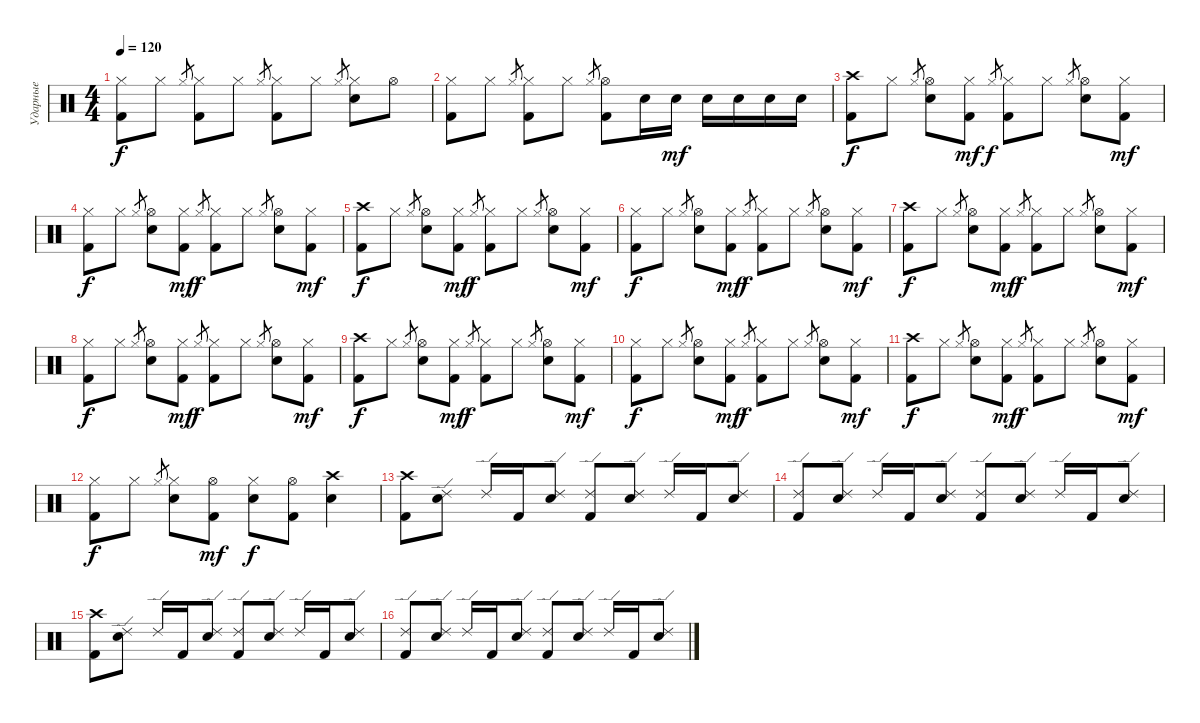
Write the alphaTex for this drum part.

\track ("Ударные" "Ударные") {instrument percussion}
\staff {score}
\articulation defaults
\ts (4 4)
\tempo 120
\clef neutral
\ks c
("Kick (hit) 2" "Hi-Hat (closed)").8{dy f} "Hi-Hat (closed)".8 "Hi-Hat (closed)".8{gr} ("Kick (hit) 2" "Hi-Hat (closed)").8 "Hi-Hat (closed)".8 "Hi-Hat (closed)".8{gr} ("Kick (hit) 2" "Hi-Hat (closed)").8 "Hi-Hat (closed)".8 "Hi-Hat (closed)".8{gr} ("Electric Snare (hit)" "Hi-Hat (closed)").8 "Hi-Hat (open)".8 |
("Kick (hit) 2" "Hi-Hat (closed)").8 "Hi-Hat (closed)".8 "Hi-Hat (closed)".8{gr} ("Kick (hit) 2" "Hi-Hat (closed)").8 "Hi-Hat (closed)".8 "Hi-Hat (closed)".8{gr} ("Kick (hit) 2" "Hi-Hat (open)").8 "Electric Snare (hit)".16 "Electric Snare (hit)".16{dy mf} "Electric Snare (hit)".16 "Electric Snare (hit)".16 "Electric Snare (hit)".16 "Electric Snare (hit)".16 |
("Kick (hit) 2" "Crash high (hit)").8{dy f} "Hi-Hat (closed)".8 "Hi-Hat (closed)".8{gr} ("Electric Snare (hit)" "Hi-Hat (open)").8 ("Kick (hit) 2" "Hi-Hat (closed)").8{dy mf} "Hi-Hat (closed)".8{gr dy f} ("Kick (hit) 2" "Hi-Hat (closed)").8 "Hi-Hat (closed)".8 "Hi-Hat (closed)".8{gr} ("Electric Snare (hit)" "Hi-Hat (open)").8 ("Kick (hit) 2" "Hi-Hat (closed)").8{dy mf} |
("Kick (hit) 2" "Hi-Hat (closed)").8{dy f} "Hi-Hat (closed)".8 "Hi-Hat (closed)".8{gr} ("Electric Snare (hit)" "Hi-Hat (open)").8 ("Kick (hit) 2" "Hi-Hat (closed)").8{dy mf} "Hi-Hat (closed)".8{gr dy f} ("Kick (hit) 2" "Hi-Hat (closed)").8 "Hi-Hat (closed)".8 "Hi-Hat (closed)".8{gr} ("Electric Snare (hit)" "Hi-Hat (open)").8 ("Kick (hit) 2" "Hi-Hat (closed)").8{dy mf} |
("Kick (hit) 2" "Crash high (hit)").8{dy f} "Hi-Hat (closed)".8 "Hi-Hat (closed)".8{gr} ("Electric Snare (hit)" "Hi-Hat (open)").8 ("Kick (hit) 2" "Hi-Hat (closed)").8{dy mf} "Hi-Hat (closed)".8{gr dy f} ("Kick (hit) 2" "Hi-Hat (closed)").8 "Hi-Hat (closed)".8 "Hi-Hat (closed)".8{gr} ("Electric Snare (hit)" "Hi-Hat (open)").8 ("Kick (hit) 2" "Hi-Hat (closed)").8{dy mf} |
("Kick (hit) 2" "Hi-Hat (closed)").8{dy f} "Hi-Hat (closed)".8 "Hi-Hat (closed)".8{gr} ("Electric Snare (hit)" "Hi-Hat (open)").8 ("Kick (hit) 2" "Hi-Hat (closed)").8{dy mf} "Hi-Hat (closed)".8{gr dy f} ("Kick (hit) 2" "Hi-Hat (closed)").8 "Hi-Hat (closed)".8 "Hi-Hat (closed)".8{gr} ("Electric Snare (hit)" "Hi-Hat (open)").8 ("Kick (hit) 2" "Hi-Hat (closed)").8{dy mf} |
("Kick (hit) 2" "Crash high (hit)").8{dy f} "Hi-Hat (closed)".8 "Hi-Hat (closed)".8{gr} ("Electric Snare (hit)" "Hi-Hat (open)").8 ("Kick (hit) 2" "Hi-Hat (closed)").8{dy mf} "Hi-Hat (closed)".8{gr dy f} ("Kick (hit) 2" "Hi-Hat (closed)").8 "Hi-Hat (closed)".8 "Hi-Hat (closed)".8{gr} ("Electric Snare (hit)" "Hi-Hat (open)").8 ("Kick (hit) 2" "Hi-Hat (closed)").8{dy mf} |
("Kick (hit) 2" "Hi-Hat (closed)").8{dy f} "Hi-Hat (closed)".8 "Hi-Hat (closed)".8{gr} ("Electric Snare (hit)" "Hi-Hat (open)").8 ("Kick (hit) 2" "Hi-Hat (closed)").8{dy mf} "Hi-Hat (closed)".8{gr dy f} ("Kick (hit) 2" "Hi-Hat (closed)").8 "Hi-Hat (closed)".8 "Hi-Hat (closed)".8{gr} ("Electric Snare (hit)" "Hi-Hat (open)").8 ("Kick (hit) 2" "Hi-Hat (closed)").8{dy mf} |
("Kick (hit) 2" "Crash high (hit)").8{dy f} "Hi-Hat (closed)".8 "Hi-Hat (closed)".8{gr} ("Electric Snare (hit)" "Hi-Hat (open)").8 ("Kick (hit) 2" "Hi-Hat (closed)").8{dy mf} "Hi-Hat (closed)".8{gr dy f} ("Kick (hit) 2" "Hi-Hat (closed)").8 "Hi-Hat (closed)".8 "Hi-Hat (closed)".8{gr} ("Electric Snare (hit)" "Hi-Hat (open)").8 ("Kick (hit) 2" "Hi-Hat (closed)").8{dy mf} |
("Kick (hit) 2" "Hi-Hat (closed)").8{dy f} "Hi-Hat (closed)".8 "Hi-Hat (closed)".8{gr} ("Electric Snare (hit)" "Hi-Hat (open)").8 ("Kick (hit) 2" "Hi-Hat (closed)").8{dy mf} "Hi-Hat (closed)".8{gr dy f} ("Kick (hit) 2" "Hi-Hat (closed)").8 "Hi-Hat (closed)".8 "Hi-Hat (closed)".8{gr} ("Electric Snare (hit)" "Hi-Hat (open)").8 ("Kick (hit) 2" "Hi-Hat (closed)").8{dy mf} |
("Kick (hit) 2" "Crash high (hit)").8{dy f} "Hi-Hat (closed)".8 "Hi-Hat (closed)".8{gr} ("Electric Snare (hit)" "Hi-Hat (open)").8 ("Kick (hit) 2" "Hi-Hat (closed)").8{dy mf} "Hi-Hat (closed)".8{gr dy f} ("Kick (hit) 2" "Hi-Hat (closed)").8 "Hi-Hat (closed)".8 "Hi-Hat (closed)".8{gr} ("Electric Snare (hit)" "Hi-Hat (open)").8 ("Kick (hit) 2" "Hi-Hat (closed)").8{dy mf} |
("Kick (hit) 2" "Hi-Hat (closed)").8{dy f} "Hi-Hat (closed)".8 "Hi-Hat (closed)".8{gr} ("Electric Snare (hit)" "Hi-Hat (closed)").8 ("Kick (hit) 2" "Hi-Hat (open)").8{dy mf} ("Electric Snare (hit)" "Hi-Hat (closed)").8{dy f} ("Kick (hit) 2" "Hi-Hat (open)").8 ("Electric Snare (hit)" "Crash high (hit)").4 |
("Kick (hit) 2" "Crash high (hit)").8 ("Electric Snare (hit)" "Ride (edge) 2").8 "Ride (edge) 2".16 "Kick (hit) 2".16 ("Electric Snare (hit)" "Ride (edge) 2").8 ("Kick (hit) 2" "Ride (edge) 2").8 ("Electric Snare (hit)" "Ride (edge) 2").8 "Ride (edge) 2".16 "Kick (hit) 2".16 ("Electric Snare (hit)" "Ride (edge) 2").8 |
("Kick (hit) 2" "Ride (edge) 2").8 ("Electric Snare (hit)" "Ride (edge) 2").8 "Ride (edge) 2".16 "Kick (hit) 2".16 ("Electric Snare (hit)" "Ride (edge) 2").8 ("Kick (hit) 2" "Ride (edge) 2").8 ("Electric Snare (hit)" "Ride (edge) 2").8 "Ride (edge) 2".16 "Kick (hit) 2".16 ("Electric Snare (hit)" "Ride (edge) 2").8 |
("Kick (hit) 2" "Crash high (hit)").8 ("Electric Snare (hit)" "Ride (edge) 2").8 "Ride (edge) 2".16 "Kick (hit) 2".16 ("Electric Snare (hit)" "Ride (edge) 2").8 ("Kick (hit) 2" "Ride (edge) 2").8 ("Electric Snare (hit)" "Ride (edge) 2").8 "Ride (edge) 2".16 "Kick (hit) 2".16 ("Electric Snare (hit)" "Ride (edge) 2").8 |
("Kick (hit) 2" "Ride (edge) 2").8 ("Electric Snare (hit)" "Ride (edge) 2").8 "Ride (edge) 2".16 "Kick (hit) 2".16 ("Electric Snare (hit)" "Ride (edge) 2").8 ("Kick (hit) 2" "Ride (edge) 2").8 ("Electric Snare (hit)" "Ride (edge) 2").8 "Ride (edge) 2".16 "Kick (hit) 2".16 ("Electric Snare (hit)" "Ride (edge) 2").8
